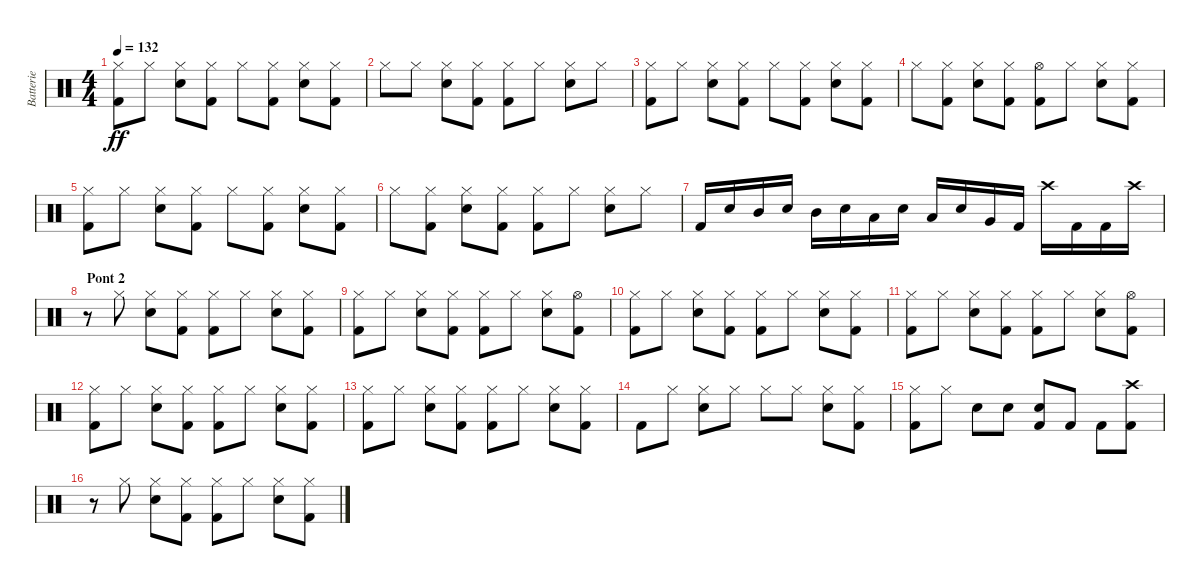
\track ("Batterie" "Batterie") {instrument percussion}
\staff {score}
\articulation defaults
\ts (4 4)
\tempo 132
\clef neutral
\ks c
("Kick (hit) 2" "Hi-Hat (closed)").8{dy ff} "Hi-Hat (closed)".8 ("Snare (hit) 2" "Hi-Hat (closed)").8 ("Kick (hit) 2" "Hi-Hat (closed)").8 "Hi-Hat (closed)".8 ("Kick (hit) 2" "Hi-Hat (closed)").8 ("Snare (hit) 2" "Hi-Hat (closed)").8 ("Kick (hit) 2" "Hi-Hat (closed)").8 |
"Hi-Hat (closed)".8 "Hi-Hat (closed)".8 ("Snare (hit) 2" "Hi-Hat (closed)").8 ("Kick (hit) 2" "Hi-Hat (closed)").8 ("Kick (hit) 2" "Hi-Hat (closed)").8 "Hi-Hat (closed)".8 ("Snare (hit) 2" "Hi-Hat (closed)").8 "Hi-Hat (closed)".8 |
("Kick (hit) 2" "Hi-Hat (closed)").8 "Hi-Hat (closed)".8 ("Snare (hit) 2" "Hi-Hat (closed)").8 ("Kick (hit) 2" "Hi-Hat (closed)").8 "Hi-Hat (closed)".8 ("Kick (hit) 2" "Hi-Hat (closed)").8 ("Snare (hit) 2" "Hi-Hat (closed)").8 ("Kick (hit) 2" "Hi-Hat (closed)").8 |
"Hi-Hat (closed)".8 ("Kick (hit) 2" "Hi-Hat (closed)").8 ("Snare (hit) 2" "Hi-Hat (closed)").8 ("Kick (hit) 2" "Hi-Hat (closed)").8 ("Kick (hit) 2" "Hi-Hat (open)").8 "Hi-Hat (closed)".8 ("Snare (hit) 2" "Hi-Hat (closed)").8 ("Kick (hit) 2" "Hi-Hat (closed)").8 |
("Kick (hit) 2" "Hi-Hat (closed)").8 "Hi-Hat (closed)".8 ("Snare (hit) 2" "Hi-Hat (closed)").8 ("Kick (hit) 2" "Hi-Hat (closed)").8 "Hi-Hat (closed)".8 ("Kick (hit) 2" "Hi-Hat (closed)").8 ("Snare (hit) 2" "Hi-Hat (closed)").8 ("Kick (hit) 2" "Hi-Hat (closed)").8 |
"Hi-Hat (closed)".8 ("Kick (hit) 2" "Hi-Hat (closed)").8 ("Snare (hit) 2" "Hi-Hat (closed)").8 ("Kick (hit) 2" "Hi-Hat (closed)").8 ("Kick (hit) 2" "Hi-Hat (closed)").8 "Hi-Hat (closed)".8 ("Snare (hit) 2" "Hi-Hat (closed)").8 "Hi-Hat (closed)".8 |
"Kick (hit) 2".16 "Snare (hit) 2".16 "Mid Tom (hit)".16 "Snare (hit) 2".16 "Mid Tom (hit)".16 "Snare (hit) 2".16 "Low Tom (hit)".16 "Snare (hit) 2".16 "Low Tom (hit)".16 "Snare (hit) 2".16 "Very Low Tom (hit)".16 "Kick (hit) 2".16 "Crash high (hit)".16 "Kick (hit) 2".16 "Kick (hit) 2".16 "Crash high (hit)".16 |
\section ("" " Pont 2")
r.8 "Hi-Hat (closed)".8 ("Snare (hit) 2" "Hi-Hat (closed)").8 ("Kick (hit) 2" "Hi-Hat (closed)").8 ("Kick (hit) 2" "Hi-Hat (closed)").8 "Hi-Hat (closed)".8 ("Snare (hit) 2" "Hi-Hat (closed)").8 ("Kick (hit) 2" "Hi-Hat (closed)").8 |
("Kick (hit) 2" "Hi-Hat (closed)").8 "Hi-Hat (closed)".8 ("Snare (hit) 2" "Hi-Hat (closed)").8 ("Kick (hit) 2" "Hi-Hat (closed)").8 ("Kick (hit) 2" "Hi-Hat (closed)").8 "Hi-Hat (closed)".8 ("Snare (hit) 2" "Hi-Hat (closed)").8 ("Kick (hit) 2" "Hi-Hat (open)").8 |
("Kick (hit) 2" "Hi-Hat (closed)").8 "Hi-Hat (closed)".8 ("Snare (hit) 2" "Hi-Hat (closed)").8 ("Kick (hit) 2" "Hi-Hat (closed)").8 ("Kick (hit) 2" "Hi-Hat (closed)").8 "Hi-Hat (closed)".8 ("Snare (hit) 2" "Hi-Hat (closed)").8 ("Kick (hit) 2" "Hi-Hat (closed)").8 |
("Kick (hit) 2" "Hi-Hat (closed)").8 "Hi-Hat (closed)".8 ("Snare (hit) 2" "Hi-Hat (closed)").8 ("Kick (hit) 2" "Hi-Hat (closed)").8 ("Kick (hit) 2" "Hi-Hat (closed)").8 "Hi-Hat (closed)".8 ("Snare (hit) 2" "Hi-Hat (closed)").8 ("Kick (hit) 2" "Hi-Hat (open)").8 |
("Kick (hit) 2" "Hi-Hat (closed)").8 "Hi-Hat (closed)".8 ("Snare (hit) 2" "Hi-Hat (closed)").8 ("Kick (hit) 2" "Hi-Hat (closed)").8 ("Kick (hit) 2" "Hi-Hat (closed)").8 "Hi-Hat (closed)".8 ("Snare (hit) 2" "Hi-Hat (closed)").8 ("Kick (hit) 2" "Hi-Hat (closed)").8 |
("Kick (hit) 2" "Hi-Hat (closed)").8 "Hi-Hat (closed)".8 ("Snare (hit) 2" "Hi-Hat (closed)").8 ("Kick (hit) 2" "Hi-Hat (closed)").8 ("Kick (hit) 2" "Hi-Hat (closed)").8 "Hi-Hat (closed)".8 ("Snare (hit) 2" "Hi-Hat (closed)").8 ("Kick (hit) 2" "Hi-Hat (closed)").8 |
"Kick (hit) 2".8 "Hi-Hat (closed)".8 ("Snare (hit) 2" "Hi-Hat (closed)").8 "Hi-Hat (closed)".8 "Hi-Hat (closed)".8 "Hi-Hat (closed)".8 ("Snare (hit) 2" "Hi-Hat (closed)").8 ("Kick (hit) 2" "Hi-Hat (closed)").8 |
("Kick (hit) 2" "Hi-Hat (closed)").8 "Hi-Hat (closed)".8 "Snare (hit) 2".8 "Snare (hit) 2".8 ("Kick (hit) 2" "Snare (hit) 2").8 "Kick (hit) 2".8 "Kick (hit) 2".8 ("Kick (hit) 2" "Crash high (hit)").8 |
r.8 "Hi-Hat (closed)".8 ("Snare (hit) 2" "Hi-Hat (closed)").8 ("Kick (hit) 2" "Hi-Hat (closed)").8 ("Kick (hit) 2" "Hi-Hat (closed)").8 "Hi-Hat (closed)".8 ("Snare (hit) 2" "Hi-Hat (closed)").8 ("Kick (hit) 2" "Hi-Hat (closed)").8
